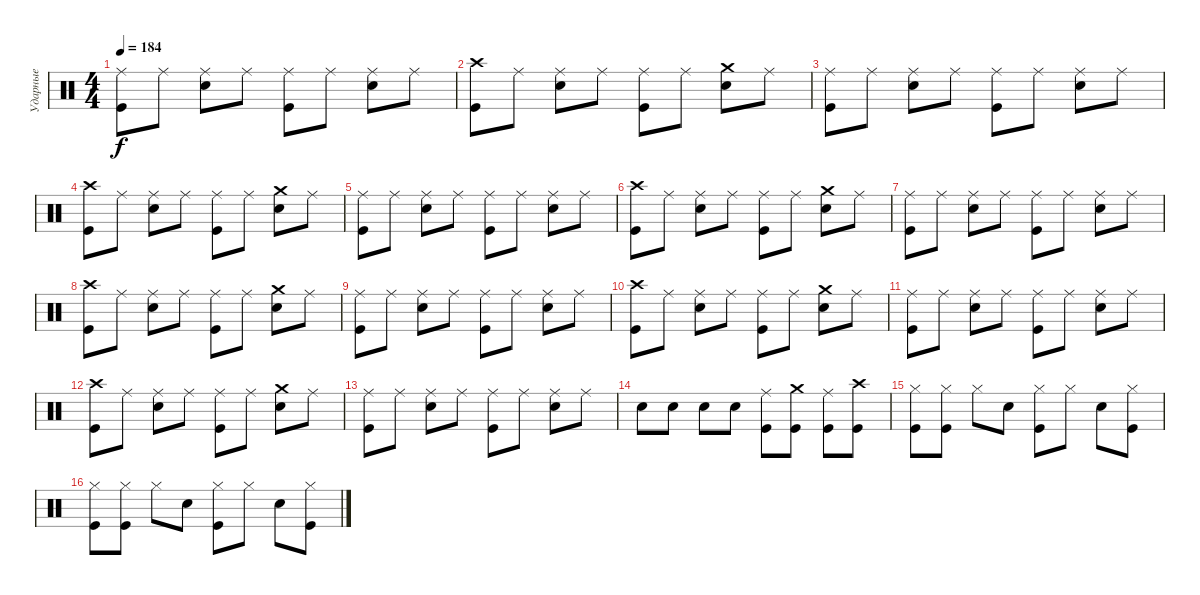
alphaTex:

\track ("Ударные" "Ударные") {instrument percussion}
\staff {score}
\articulation defaults
\ts (4 4)
\tempo 184
\clef neutral
\ks c
("Ride (middle)" "Kick (hit)").8{dy f} "Ride (middle)".8 ("Ride (middle)" "Electric Snare (hit)").8 "Ride (middle)".8 ("Ride (middle)" "Kick (hit)").8 "Ride (middle)".8 ("Ride (middle)" "Electric Snare (hit)").8 "Ride (middle)".8 |
("Crash high (hit)" "Kick (hit)").8 "Ride (middle)".8 ("Ride (middle)" "Electric Snare (hit)").8 "Ride (middle)".8 ("Ride (middle)" "Kick (hit)").8 "Ride (middle)".8 ("Crash medium (hit)" "Electric Snare (hit)").8 "Ride (middle)".8 |
("Ride (middle)" "Kick (hit)").8 "Ride (middle)".8 ("Ride (middle)" "Electric Snare (hit)").8 "Ride (middle)".8 ("Ride (middle)" "Kick (hit)").8 "Ride (middle)".8 ("Ride (middle)" "Electric Snare (hit)").8 "Ride (middle)".8 |
("Crash high (hit)" "Kick (hit)").8 "Ride (middle)".8 ("Ride (middle)" "Electric Snare (hit)").8 "Ride (middle)".8 ("Ride (middle)" "Kick (hit)").8 "Ride (middle)".8 ("Crash medium (hit)" "Electric Snare (hit)").8 "Ride (middle)".8 |
("Ride (middle)" "Kick (hit)").8 "Ride (middle)".8 ("Ride (middle)" "Electric Snare (hit)").8 "Ride (middle)".8 ("Ride (middle)" "Kick (hit)").8 "Ride (middle)".8 ("Ride (middle)" "Electric Snare (hit)").8 "Ride (middle)".8 |
("Crash high (hit)" "Kick (hit)").8 "Ride (middle)".8 ("Ride (middle)" "Electric Snare (hit)").8 "Ride (middle)".8 ("Ride (middle)" "Kick (hit)").8 "Ride (middle)".8 ("Crash medium (hit)" "Electric Snare (hit)").8 "Ride (middle)".8 |
("Ride (middle)" "Kick (hit)").8 "Ride (middle)".8 ("Ride (middle)" "Electric Snare (hit)").8 "Ride (middle)".8 ("Ride (middle)" "Kick (hit)").8 "Ride (middle)".8 ("Ride (middle)" "Electric Snare (hit)").8 "Ride (middle)".8 |
("Crash high (hit)" "Kick (hit)").8 "Ride (middle)".8 ("Ride (middle)" "Electric Snare (hit)").8 "Ride (middle)".8 ("Ride (middle)" "Kick (hit)").8 "Ride (middle)".8 ("Crash medium (hit)" "Electric Snare (hit)").8 "Ride (middle)".8 |
("Ride (middle)" "Kick (hit)").8 "Ride (middle)".8 ("Ride (middle)" "Electric Snare (hit)").8 "Ride (middle)".8 ("Ride (middle)" "Kick (hit)").8 "Ride (middle)".8 ("Ride (middle)" "Electric Snare (hit)").8 "Ride (middle)".8 |
("Crash high (hit)" "Kick (hit)").8 "Ride (middle)".8 ("Ride (middle)" "Electric Snare (hit)").8 "Ride (middle)".8 ("Ride (middle)" "Kick (hit)").8 "Ride (middle)".8 ("Crash medium (hit)" "Electric Snare (hit)").8 "Ride (middle)".8 |
("Ride (middle)" "Kick (hit)").8 "Ride (middle)".8 ("Ride (middle)" "Electric Snare (hit)").8 "Ride (middle)".8 ("Ride (middle)" "Kick (hit)").8 "Ride (middle)".8 ("Ride (middle)" "Electric Snare (hit)").8 "Ride (middle)".8 |
("Crash high (hit)" "Kick (hit)").8 "Ride (middle)".8 ("Ride (middle)" "Electric Snare (hit)").8 "Ride (middle)".8 ("Ride (middle)" "Kick (hit)").8 "Ride (middle)".8 ("Crash medium (hit)" "Electric Snare (hit)").8 "Ride (middle)".8 |
("Ride (middle)" "Kick (hit)").8 "Ride (middle)".8 ("Ride (middle)" "Electric Snare (hit)").8 "Ride (middle)".8 ("Ride (middle)" "Kick (hit)").8 "Ride (middle)".8 ("Ride (middle)" "Electric Snare (hit)").8 "Ride (middle)".8 |
"Electric Snare (hit)".8 "Electric Snare (hit)".8 "Electric Snare (hit)".8 "Electric Snare (hit)".8 ("Ride (middle)" "Kick (hit)").8 ("Crash medium (hit)" "Kick (hit)").8 ("Ride (middle)" "Kick (hit)").8 ("Crash high (hit)" "Kick (hit)").8 |
("Hi-Hat (closed)" "Kick (hit)").8 ("Hi-Hat (closed)" "Kick (hit)").8 "Hi-Hat (closed)".8 "Electric Snare (hit)".8 ("Hi-Hat (closed)" "Kick (hit)").8 "Hi-Hat (closed)".8 "Electric Snare (hit)".8 ("Hi-Hat (closed)" "Kick (hit)").8 |
("Hi-Hat (closed)" "Kick (hit)").8 ("Hi-Hat (closed)" "Kick (hit)").8 "Hi-Hat (closed)".8 "Electric Snare (hit)".8 ("Hi-Hat (closed)" "Kick (hit)").8 "Hi-Hat (closed)".8 "Electric Snare (hit)".8 ("Hi-Hat (closed)" "Kick (hit)").8
